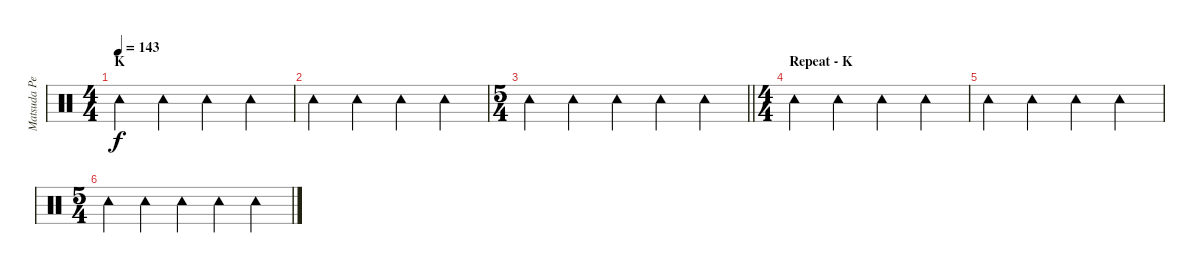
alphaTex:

\track ("Matsuda Percussion" "Matsuda Pe") {instrument percussion}
\staff {score}
\articulation defaults
\ts (4 4)
\section ("" "K")
\tempo 143
\clef neutral
\ks c "Tambourine (hit)".4{dy f} "Tambourine (hit)".4 "Tambourine (hit)".4 "Tambourine (hit)".4
|
"Tambourine (hit)".4 "Tambourine (hit)".4 "Tambourine (hit)".4 "Tambourine (hit)".4 |
\ts (5 4)
\barLineRight lightlight "Tambourine (hit)".4 "Tambourine (hit)".4 "Tambourine (hit)".4 "Tambourine (hit)".4 "Tambourine (hit)".4
|
\ts (4 4)
\section ("" "Repeat - K")
"Tambourine (hit)".4 "Tambourine (hit)".4 "Tambourine (hit)".4 "Tambourine (hit)".4 |
"Tambourine (hit)".4 "Tambourine (hit)".4 "Tambourine (hit)".4 "Tambourine (hit)".4 |
\ts (5 4)
"Tambourine (hit)".4 "Tambourine (hit)".4 "Tambourine (hit)".4 "Tambourine (hit)".4 "Tambourine (hit)".4
